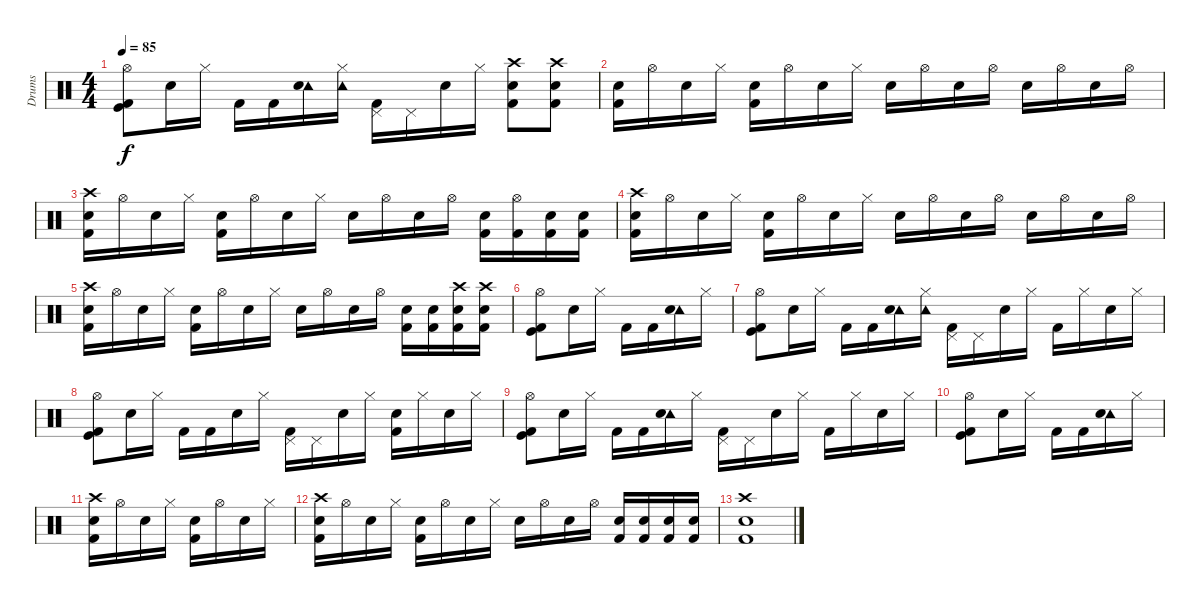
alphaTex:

\track ("Drums" "Drums") {instrument percussion}
\staff {score}
\articulation defaults
\ts (4 4)
\tempo 85
\clef neutral
\ks c
("Hi-Hat (open)" "Kick (hit) 2" "Kick (hit)").8{dy f} "Snare (hit) 2".16 "Hi-Hat (closed)".16 "Kick (hit) 2".16 "Kick (hit) 2".16 ("Tambourine (hit)" "Snare (hit) 2").16 ("Tambourine (hit)" "Hi-Hat (closed)").16 ("Pedal Hi-Hat (hit)" "Kick (hit) 2").16 "Pedal Hi-Hat (hit)".16 "Snare (hit) 2".16 "Hi-Hat (closed)".16 ("Crash high (hit)" "Snare (hit) 2" "Kick (hit) 2").8 ("Crash high (hit)" "Snare (hit) 2" "Kick (hit) 2").8 |
("Snare (hit) 2" "Kick (hit) 2").16 "Hi-Hat (open)".16 "Snare (hit) 2".16 "Hi-Hat (closed)".16 ("Snare (hit) 2" "Kick (hit) 2").16 "Hi-Hat (open)".16 "Snare (hit) 2".16 "Hi-Hat (closed)".16 "Snare (hit) 2".16 "Hi-Hat (open)".16 "Snare (hit) 2".16 "Hi-Hat (open)".16 "Snare (hit) 2".16 "Hi-Hat (open)".16 "Snare (hit) 2".16 "Hi-Hat (open)".16 |
("Crash high (hit)" "Snare (hit) 2" "Kick (hit) 2").16 "Hi-Hat (open)".16 "Snare (hit) 2".16 "Hi-Hat (closed)".16 ("Snare (hit) 2" "Kick (hit) 2").16 "Hi-Hat (open)".16 "Snare (hit) 2".16 "Hi-Hat (closed)".16 "Snare (hit) 2".16 "Hi-Hat (open)".16 "Snare (hit) 2".16 "Hi-Hat (open)".16 ("Snare (hit) 2" "Kick (hit) 2").16 ("Hi-Hat (open)" "Kick (hit) 2").16 ("Snare (hit) 2" "Kick (hit) 2").16 ("Snare (hit) 2" "Kick (hit) 2").16 |
("Crash high (hit)" "Snare (hit) 2" "Kick (hit) 2").16 "Hi-Hat (open)".16 "Snare (hit) 2".16 "Hi-Hat (closed)".16 ("Snare (hit) 2" "Kick (hit) 2").16 "Hi-Hat (open)".16 "Snare (hit) 2".16 "Hi-Hat (closed)".16 "Snare (hit) 2".16 "Hi-Hat (open)".16 "Snare (hit) 2".16 "Hi-Hat (open)".16 "Snare (hit) 2".16 "Hi-Hat (open)".16 "Snare (hit) 2".16 "Hi-Hat (open)".16 |
("Crash high (hit)" "Snare (hit) 2" "Kick (hit) 2").16 "Hi-Hat (open)".16 "Snare (hit) 2".16 "Hi-Hat (closed)".16 ("Snare (hit) 2" "Kick (hit) 2").16 "Hi-Hat (open)".16 "Snare (hit) 2".16 "Hi-Hat (closed)".16 "Snare (hit) 2".16 "Hi-Hat (open)".16 "Snare (hit) 2".16 "Hi-Hat (open)".16 ("Snare (hit) 2" "Kick (hit) 2").16 ("Snare (hit) 2" "Kick (hit) 2").16 ("Crash high (hit)" "Snare (hit) 2" "Kick (hit) 2").16 ("Crash high (hit)" "Snare (hit) 2" "Kick (hit) 2").16 |
("Hi-Hat (open)" "Kick (hit) 2" "Kick (hit)").8 "Snare (hit) 2".16 "Hi-Hat (closed)".16 "Kick (hit) 2".16 "Kick (hit) 2".16 ("Tambourine (hit)" "Snare (hit) 2").16 "Hi-Hat (closed)".16 |
("Hi-Hat (open)" "Kick (hit) 2" "Kick (hit)").8 "Snare (hit) 2".16 "Hi-Hat (closed)".16 "Kick (hit) 2".16 "Kick (hit) 2".16 ("Tambourine (hit)" "Snare (hit) 2").16 ("Tambourine (hit)" "Hi-Hat (closed)").16 ("Pedal Hi-Hat (hit)" "Kick (hit) 2").16 "Pedal Hi-Hat (hit)".16 "Snare (hit) 2".16 "Hi-Hat (closed)".16 "Kick (hit) 2".16 "Hi-Hat (closed)".16 "Snare (hit) 2".16 "Hi-Hat (closed)".16 |
("Hi-Hat (open)" "Kick (hit) 2" "Kick (hit)").8 "Snare (hit) 2".16 "Hi-Hat (closed)".16 "Kick (hit) 2".16 "Kick (hit) 2".16 "Snare (hit) 2".16 "Hi-Hat (closed)".16 ("Pedal Hi-Hat (hit)" "Kick (hit) 2").16 "Pedal Hi-Hat (hit)".16 "Snare (hit) 2".16 "Hi-Hat (closed)".16 ("Snare (hit) 2" "Kick (hit) 2").16 "Hi-Hat (closed)".16 "Snare (hit) 2".16 "Hi-Hat (closed)".16 |
("Hi-Hat (open)" "Kick (hit) 2" "Kick (hit)").8 "Snare (hit) 2".16 "Hi-Hat (closed)".16 "Kick (hit) 2".16 "Kick (hit) 2".16 ("Tambourine (hit)" "Snare (hit) 2").16 "Hi-Hat (closed)".16 ("Pedal Hi-Hat (hit)" "Kick (hit) 2").16 "Pedal Hi-Hat (hit)".16 "Snare (hit) 2".16 "Hi-Hat (closed)".16 "Kick (hit) 2".16 "Hi-Hat (closed)".16 "Snare (hit) 2".16 "Hi-Hat (closed)".16 |
("Hi-Hat (open)" "Kick (hit) 2" "Kick (hit)").8 "Snare (hit) 2".16 "Hi-Hat (closed)".16 "Kick (hit) 2".16 "Kick (hit) 2".16 ("Tambourine (hit)" "Snare (hit) 2").16 "Hi-Hat (closed)".16 |
("Crash high (hit)" "Snare (hit) 2" "Kick (hit) 2").16 "Hi-Hat (open)".16 "Snare (hit) 2".16 "Hi-Hat (closed)".16 ("Snare (hit) 2" "Kick (hit) 2").16 "Hi-Hat (open)".16 "Snare (hit) 2".16 "Hi-Hat (closed)".16 |
("Crash high (hit)" "Snare (hit) 2" "Kick (hit) 2").16 "Hi-Hat (open)".16 "Snare (hit) 2".16 "Hi-Hat (closed)".16 ("Snare (hit) 2" "Kick (hit) 2").16 "Hi-Hat (open)".16 "Snare (hit) 2".16 "Hi-Hat (closed)".16 "Snare (hit) 2".16 "Hi-Hat (open)".16 "Snare (hit) 2".16 "Hi-Hat (open)".16 ("Snare (hit) 2" "Kick (hit) 2").16 ("Snare (hit) 2" "Kick (hit) 2").16 ("Snare (hit) 2" "Kick (hit) 2").16 ("Snare (hit) 2" "Kick (hit) 2").16 |
("Crash high (hit)" "Snare (hit) 2" "Kick (hit) 2").1
